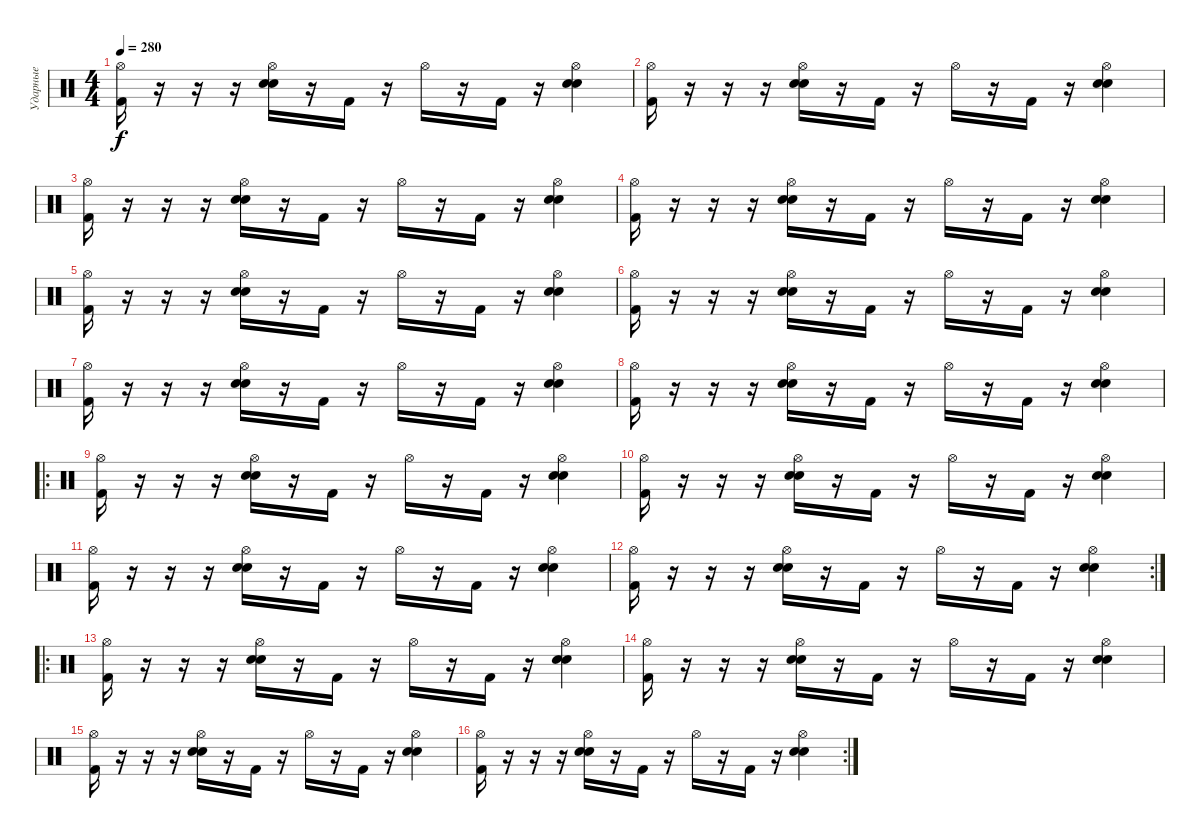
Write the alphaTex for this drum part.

\track ("Ударные" "Ударные") {instrument percussion}
\staff {score}
\articulation defaults
\ts (4 4)
\tempo 280
\clef neutral
\ks c
("Hi-Hat (open)" "Kick (hit) 2").16{dy f} r.16 r.16 r.16 ("Hi-Hat (open)" "Electric Snare (hit)" "Snare (hit) 2").16 r.16 "Kick (hit) 2".16 r.16 "Hi-Hat (open)".16 r.16 "Kick (hit) 2".16 r.16 ("Hi-Hat (open)" "Electric Snare (hit)" "Snare (hit) 2").4 |
("Hi-Hat (open)" "Kick (hit) 2").16 r.16 r.16 r.16 ("Hi-Hat (open)" "Electric Snare (hit)" "Snare (hit) 2").16 r.16 "Kick (hit) 2".16 r.16 "Hi-Hat (open)".16 r.16 "Kick (hit) 2".16 r.16 ("Hi-Hat (open)" "Electric Snare (hit)" "Snare (hit) 2").4 |
("Hi-Hat (open)" "Kick (hit) 2").16 r.16 r.16 r.16 ("Hi-Hat (open)" "Electric Snare (hit)" "Snare (hit) 2").16 r.16 "Kick (hit) 2".16 r.16 "Hi-Hat (open)".16 r.16 "Kick (hit) 2".16 r.16 ("Hi-Hat (open)" "Electric Snare (hit)" "Snare (hit) 2").4 |
("Hi-Hat (open)" "Kick (hit) 2").16 r.16 r.16 r.16 ("Hi-Hat (open)" "Electric Snare (hit)" "Snare (hit) 2").16 r.16 "Kick (hit) 2".16 r.16 "Hi-Hat (open)".16 r.16 "Kick (hit) 2".16 r.16 ("Hi-Hat (open)" "Electric Snare (hit)" "Snare (hit) 2").4 |
("Hi-Hat (open)" "Kick (hit) 2").16 r.16 r.16 r.16 ("Hi-Hat (open)" "Electric Snare (hit)" "Snare (hit) 2").16 r.16 "Kick (hit) 2".16 r.16 "Hi-Hat (open)".16 r.16 "Kick (hit) 2".16 r.16 ("Hi-Hat (open)" "Electric Snare (hit)" "Snare (hit) 2").4 |
("Hi-Hat (open)" "Kick (hit) 2").16 r.16 r.16 r.16 ("Hi-Hat (open)" "Electric Snare (hit)" "Snare (hit) 2").16 r.16 "Kick (hit) 2".16 r.16 "Hi-Hat (open)".16 r.16 "Kick (hit) 2".16 r.16 ("Hi-Hat (open)" "Electric Snare (hit)" "Snare (hit) 2").4 |
("Hi-Hat (open)" "Kick (hit) 2").16 r.16 r.16 r.16 ("Hi-Hat (open)" "Electric Snare (hit)" "Snare (hit) 2").16 r.16 "Kick (hit) 2".16 r.16 "Hi-Hat (open)".16 r.16 "Kick (hit) 2".16 r.16 ("Hi-Hat (open)" "Electric Snare (hit)" "Snare (hit) 2").4 |
("Hi-Hat (open)" "Kick (hit) 2").16 r.16 r.16 r.16 ("Hi-Hat (open)" "Electric Snare (hit)" "Snare (hit) 2").16 r.16 "Kick (hit) 2".16 r.16 "Hi-Hat (open)".16 r.16 "Kick (hit) 2".16 r.16 ("Hi-Hat (open)" "Electric Snare (hit)" "Snare (hit) 2").4 |
\ro
("Hi-Hat (open)" "Kick (hit) 2").16 r.16 r.16 r.16 ("Hi-Hat (open)" "Electric Snare (hit)" "Snare (hit) 2").16 r.16 "Kick (hit) 2".16 r.16 "Hi-Hat (open)".16 r.16 "Kick (hit) 2".16 r.16 ("Hi-Hat (open)" "Electric Snare (hit)" "Snare (hit) 2").4 |
("Hi-Hat (open)" "Kick (hit) 2").16 r.16 r.16 r.16 ("Hi-Hat (open)" "Electric Snare (hit)" "Snare (hit) 2").16 r.16 "Kick (hit) 2".16 r.16 "Hi-Hat (open)".16 r.16 "Kick (hit) 2".16 r.16 ("Hi-Hat (open)" "Electric Snare (hit)" "Snare (hit) 2").4 |
("Hi-Hat (open)" "Kick (hit) 2").16 r.16 r.16 r.16 ("Hi-Hat (open)" "Electric Snare (hit)" "Snare (hit) 2").16 r.16 "Kick (hit) 2".16 r.16 "Hi-Hat (open)".16 r.16 "Kick (hit) 2".16 r.16 ("Hi-Hat (open)" "Electric Snare (hit)" "Snare (hit) 2").4 |
\rc 2
("Hi-Hat (open)" "Kick (hit) 2").16 r.16 r.16 r.16 ("Hi-Hat (open)" "Electric Snare (hit)" "Snare (hit) 2").16 r.16 "Kick (hit) 2".16 r.16 "Hi-Hat (open)".16 r.16 "Kick (hit) 2".16 r.16 ("Hi-Hat (open)" "Electric Snare (hit)" "Snare (hit) 2").4 |
\ro
("Hi-Hat (open)" "Kick (hit) 2").16 r.16 r.16 r.16 ("Hi-Hat (open)" "Electric Snare (hit)" "Snare (hit) 2").16 r.16 "Kick (hit) 2".16 r.16 "Hi-Hat (open)".16 r.16 "Kick (hit) 2".16 r.16 ("Hi-Hat (open)" "Electric Snare (hit)" "Snare (hit) 2").4 |
("Hi-Hat (open)" "Kick (hit) 2").16 r.16 r.16 r.16 ("Hi-Hat (open)" "Electric Snare (hit)" "Snare (hit) 2").16 r.16 "Kick (hit) 2".16 r.16 "Hi-Hat (open)".16 r.16 "Kick (hit) 2".16 r.16 ("Hi-Hat (open)" "Electric Snare (hit)" "Snare (hit) 2").4 |
("Hi-Hat (open)" "Kick (hit) 2").16 r.16 r.16 r.16 ("Hi-Hat (open)" "Electric Snare (hit)" "Snare (hit) 2").16 r.16 "Kick (hit) 2".16 r.16 "Hi-Hat (open)".16 r.16 "Kick (hit) 2".16 r.16 ("Hi-Hat (open)" "Electric Snare (hit)" "Snare (hit) 2").4 |
\rc 2
("Hi-Hat (open)" "Kick (hit) 2").16 r.16 r.16 r.16 ("Hi-Hat (open)" "Electric Snare (hit)" "Snare (hit) 2").16 r.16 "Kick (hit) 2".16 r.16 "Hi-Hat (open)".16 r.16 "Kick (hit) 2".16 r.16 ("Hi-Hat (open)" "Electric Snare (hit)" "Snare (hit) 2").4
